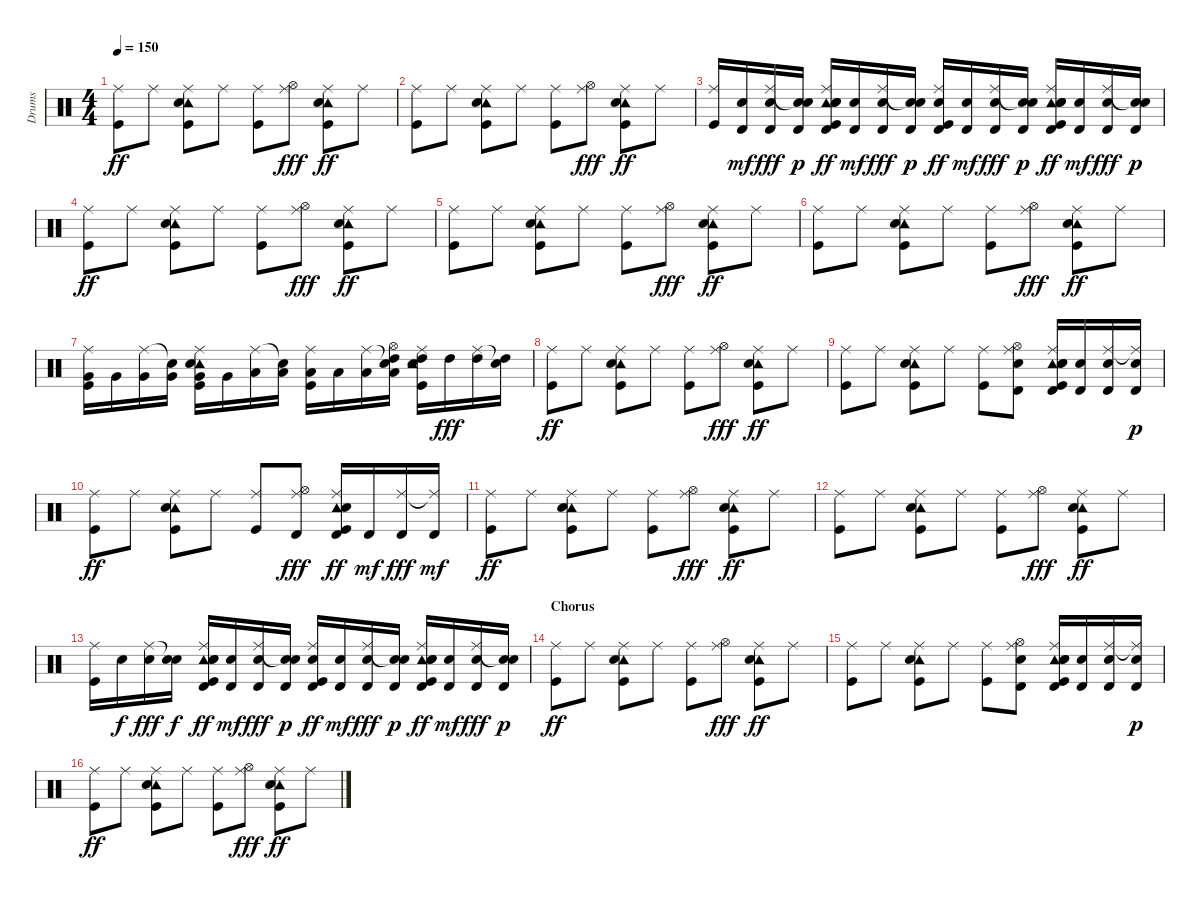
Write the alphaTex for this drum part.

\track ("Drums" "Drums") {instrument percussion}
\staff {score}
\articulation defaults
\ts (4 4)
\tempo 150
\clef neutral
\ks c
("Ride (middle)" "Kick (hit)").8{dy ff} "Ride (middle)".8 ("Ride (middle)" "Tambourine (hit)" "Electric Snare (hit)" "Kick (hit)").8 "Ride (middle)".8 ("Ride (middle)" "Kick (hit)").8 ("Ride (middle)" "Hi-Hat (open)").8{dy fff} ("Ride (middle)" "Tambourine (hit)" "Electric Snare (hit)" "Kick (hit)").8{dy ff} "Ride (middle)".8 |
("Ride (middle)" "Kick (hit)").8 "Ride (middle)".8 ("Ride (middle)" "Tambourine (hit)" "Electric Snare (hit)" "Kick (hit)").8 "Ride (middle)".8 ("Ride (middle)" "Kick (hit)").8 ("Ride (middle)" "Hi-Hat (open)").8{dy fff} ("Ride (middle)" "Tambourine (hit)" "Electric Snare (hit)" "Kick (hit)").8{dy ff} "Ride (middle)".8 |
("Ride (middle)" "Kick (hit)").16 ("Timbale high (hit)" "Snare (hit) 2").16{dy mf} ("Timbale high (hit)" "Ride (middle)" "Snare (hit) 2").16{dy fff} ("Timbale high (hit)" "Snare (hit)"{t} "Snare (hit) 2").16{dy p} ("Timbale high (hit)" "Ride (middle)" "Tambourine (hit)" "Electric Snare (hit)" "Snare (hit) 2" "Kick (hit)").16{dy ff} ("Timbale high (hit)" "Snare (hit) 2").16{dy mf} ("Timbale high (hit)" "Ride (middle)" "Snare (hit) 2").16{dy fff} ("Timbale high (hit)" "Snare (hit)"{t} "Snare (hit) 2").16{dy p} ("Timbale high (hit)" "Ride (middle)" "Snare (hit) 2" "Kick (hit)").16{dy ff} ("Timbale high (hit)" "Snare (hit) 2").16{dy mf} ("Timbale high (hit)" "Ride (middle)" "Snare (hit) 2").16{dy fff} ("Timbale high (hit)" "Snare (hit)"{t} "Snare (hit) 2").16{dy p} ("Timbale high (hit)" "Ride (middle)" "Tambourine (hit)" "Electric Snare (hit)" "Snare (hit) 2" "Kick (hit)").16{dy ff} ("Timbale high (hit)" "Snare (hit) 2").16{dy mf} ("Timbale high (hit)" "Ride (middle)" "Snare (hit) 2").16{dy fff} ("Timbale high (hit)" "Snare (hit)"{t} "Snare (hit) 2").16{dy p} |
("Ride (middle)" "Kick (hit)").8{dy ff} "Ride (middle)".8 ("Ride (middle)" "Tambourine (hit)" "Electric Snare (hit)" "Kick (hit)").8 "Ride (middle)".8 ("Ride (middle)" "Kick (hit)").8 ("Ride (middle)" "Hi-Hat (open)").8{dy fff} ("Ride (middle)" "Tambourine (hit)" "Electric Snare (hit)" "Kick (hit)").8{dy ff} "Ride (middle)".8 |
("Ride (middle)" "Kick (hit)").8 "Ride (middle)".8 ("Ride (middle)" "Tambourine (hit)" "Electric Snare (hit)" "Kick (hit)").8 "Ride (middle)".8 ("Ride (middle)" "Kick (hit)").8 ("Ride (middle)" "Hi-Hat (open)").8{dy fff} ("Ride (middle)" "Tambourine (hit)" "Electric Snare (hit)" "Kick (hit)").8{dy ff} "Ride (middle)".8 |
("Ride (middle)" "Kick (hit)").8 "Ride (middle)".8 ("Ride (middle)" "Tambourine (hit)" "Electric Snare (hit)" "Kick (hit)").8 "Ride (middle)".8 ("Ride (middle)" "Kick (hit)").8 ("Ride (middle)" "Hi-Hat (open)").8{dy fff} ("Ride (middle)" "Tambourine (hit)" "Electric Snare (hit)" "Kick (hit)").8{dy ff} "Ride (middle)".8 |
("Ride (middle)" "Very Low Tom (hit)" "Kick (hit)").16 "Very Low Tom (hit)".16 ("Ride (middle)" "Very Low Tom (hit)").16 ("Snare (hit)"{t} "Very Low Tom (hit)").16 ("Ride (middle)" "Tambourine (hit)" "Electric Snare (hit)" "Very Low Tom (hit)" "Kick (hit)").16 "Very Low Tom (hit)".16 ("Ride (middle)" "Low Floor Tom (hit)").16 ("Snare (hit)"{t} "Low Floor Tom (hit)").16 ("Ride (middle)" "Low Floor Tom (hit)" "Kick (hit)").16 "Low Floor Tom (hit)".16 ("Ride (middle)" "Low Floor Tom (hit)").16 ("Snare (hit)"{t} "Hi-Hat (open)" "High Tom (hit)" "Low Floor Tom (hit)").16 ("Ride (middle)" "Tambourine (hit)" "High Tom (hit)" "Snare (hit) 2" "Kick (hit)").16 "High Tom (hit)".16{dy fff} ("Ride (middle)" "High Tom (hit)").16 ("Snare (hit)"{t} "High Tom (hit)").16 |
("Ride (middle)" "Kick (hit)").8{dy ff} "Ride (middle)".8 ("Ride (middle)" "Tambourine (hit)" "Electric Snare (hit)" "Kick (hit)").8 "Ride (middle)".8 ("Ride (middle)" "Kick (hit)").8 ("Ride (middle)" "Hi-Hat (open)").8{dy fff} ("Ride (middle)" "Tambourine (hit)" "Electric Snare (hit)" "Kick (hit)").8{dy ff} "Ride (middle)".8 |
("Ride (middle)" "Kick (hit)").8 "Ride (middle)".8 ("Ride (middle)" "Tambourine (hit)" "Electric Snare (hit)" "Kick (hit)").8 "Ride (middle)".8 ("Ride (middle)" "Kick (hit)").8 ("Timbale high (hit)" "Ride (middle)" "Hi-Hat (open)" "Snare (hit) 2").8 ("Timbale high (hit)" "Ride (middle)" "Tambourine (hit)" "Electric Snare (hit)" "Snare (hit) 2" "Kick (hit)").16 ("Timbale high (hit)" "Snare (hit) 2").16 ("Timbale high (hit)" "Ride (middle)" "Snare (hit) 2").16 ("Timbale high (hit)" "Ride (middle)"{t} "Snare (hit) 2").16{dy p} |
("Ride (middle)" "Kick (hit)").8{dy ff} "Ride (middle)".8 ("Ride (middle)" "Tambourine (hit)" "Electric Snare (hit)" "Kick (hit)").8 "Ride (middle)".8 ("Ride (middle)" "Kick (hit)").8 ("Timbale high (hit)" "Ride (middle)" "Hi-Hat (open)").8{dy fff} ("Timbale high (hit)" "Ride (middle)" "Tambourine (hit)" "Electric Snare (hit)" "Kick (hit)").16{dy ff} "Timbale high (hit)".16{dy mf} ("Timbale high (hit)" "Ride (middle)").16{dy fff} ("Timbale high (hit)" "Ride (middle)"{t}).16{dy mf} |
("Ride (middle)" "Kick (hit)").8{dy ff} "Ride (middle)".8 ("Ride (middle)" "Tambourine (hit)" "Electric Snare (hit)" "Kick (hit)").8 "Ride (middle)".8 ("Ride (middle)" "Kick (hit)").8 ("Ride (middle)" "Hi-Hat (open)").8{dy fff} ("Ride (middle)" "Tambourine (hit)" "Electric Snare (hit)" "Kick (hit)").8{dy ff} "Ride (middle)".8 |
("Ride (middle)" "Kick (hit)").8 "Ride (middle)".8 ("Ride (middle)" "Tambourine (hit)" "Electric Snare (hit)" "Kick (hit)").8 "Ride (middle)".8 ("Ride (middle)" "Kick (hit)").8 ("Ride (middle)" "Hi-Hat (open)").8{dy fff} ("Ride (middle)" "Tambourine (hit)" "Electric Snare (hit)" "Kick (hit)").8{dy ff} "Ride (middle)".8 |
("Ride (middle)" "Kick (hit)").16 "Snare (hit) 2".16{dy f} ("Ride (middle)" "Snare (hit) 2").16{dy fff} ("Snare (hit)"{t} "Snare (hit) 2").16{dy f} ("Timbale high (hit)" "Ride (middle)" "Tambourine (hit)" "Electric Snare (hit)" "Snare (hit) 2" "Kick (hit)").16{dy ff} ("Timbale high (hit)" "Snare (hit) 2").16{dy mf} ("Timbale high (hit)" "Ride (middle)" "Snare (hit) 2").16{dy fff} ("Timbale high (hit)" "Snare (hit)"{t} "Snare (hit) 2").16{dy p} ("Timbale high (hit)" "Ride (middle)" "Snare (hit) 2" "Kick (hit)").16{dy ff} ("Timbale high (hit)" "Snare (hit) 2").16{dy mf} ("Timbale high (hit)" "Ride (middle)" "Snare (hit) 2").16{dy fff} ("Timbale high (hit)" "Snare (hit)"{t} "Snare (hit) 2").16{dy p} ("Timbale high (hit)" "Ride (middle)" "Tambourine (hit)" "Electric Snare (hit)" "Snare (hit) 2" "Kick (hit)").16{dy ff} ("Timbale high (hit)" "Snare (hit) 2").16{dy mf} ("Timbale high (hit)" "Ride (middle)" "Snare (hit) 2").16{dy fff} ("Timbale high (hit)" "Snare (hit)"{t} "Snare (hit) 2").16{dy p} |
\section ("" "Chorus")
("Ride (middle)" "Kick (hit)").8{dy ff} "Ride (middle)".8 ("Ride (middle)" "Tambourine (hit)" "Electric Snare (hit)" "Kick (hit)").8 "Ride (middle)".8 ("Ride (middle)" "Kick (hit)").8 ("Ride (middle)" "Hi-Hat (open)").8{dy fff} ("Ride (middle)" "Tambourine (hit)" "Electric Snare (hit)" "Kick (hit)").8{dy ff} "Ride (middle)".8 |
("Ride (middle)" "Kick (hit)").8 "Ride (middle)".8 ("Ride (middle)" "Tambourine (hit)" "Electric Snare (hit)" "Kick (hit)").8 "Ride (middle)".8 ("Ride (middle)" "Kick (hit)").8 ("Timbale high (hit)" "Ride (middle)" "Hi-Hat (open)" "Snare (hit) 2").8 ("Timbale high (hit)" "Ride (middle)" "Tambourine (hit)" "Electric Snare (hit)" "Snare (hit) 2" "Kick (hit)").16 ("Timbale high (hit)" "Snare (hit) 2").16 ("Timbale high (hit)" "Ride (middle)" "Snare (hit) 2").16 ("Timbale high (hit)" "Ride (middle)"{t} "Snare (hit) 2").16{dy p} |
("Ride (middle)" "Kick (hit)").8{dy ff} "Ride (middle)".8 ("Ride (middle)" "Tambourine (hit)" "Electric Snare (hit)" "Kick (hit)").8 "Ride (middle)".8 ("Ride (middle)" "Kick (hit)").8 ("Ride (middle)" "Hi-Hat (open)").8{dy fff} ("Ride (middle)" "Tambourine (hit)" "Electric Snare (hit)" "Kick (hit)").8{dy ff} "Ride (middle)".8
